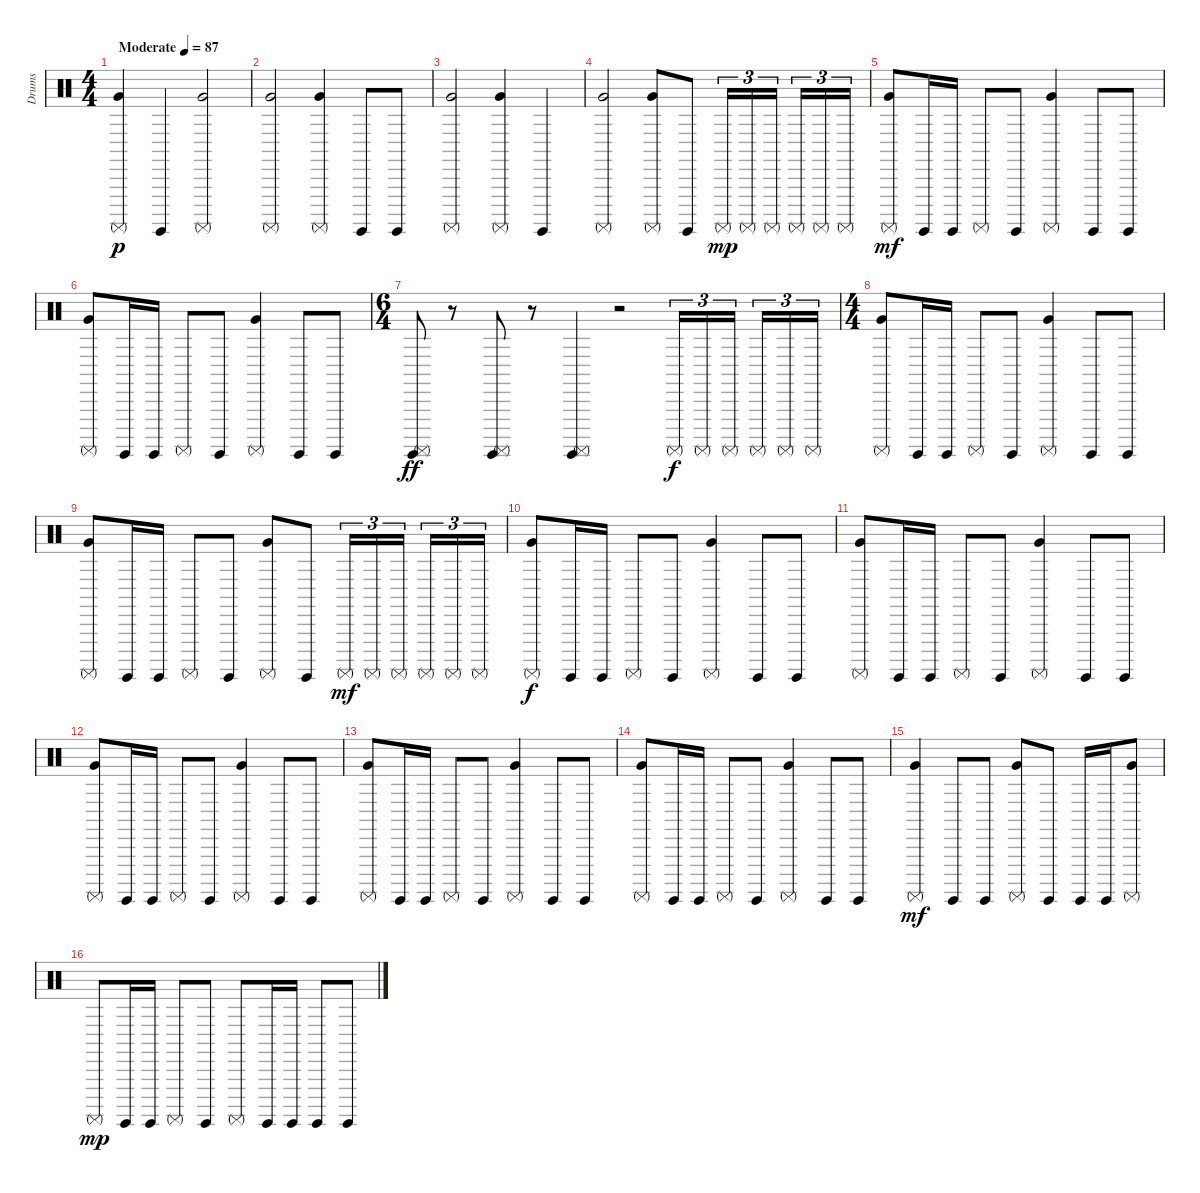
\track ("Drums" "Drums") {instrument percussion}
\staff {score}
\articulation defaults
\ts (4 4)
\tempo (87 "Moderate")
\clef neutral
\ks c
("Surdo (mute)" "Very Low Tom (hit)").4{dy p} "Surdo (hit)".4 ("Surdo (mute)" "Very Low Tom (hit)").2 |
("Very Low Tom (hit)" "Surdo (mute)").2 ("Very Low Tom (hit)" "Surdo (mute)").4 "Surdo (hit)".8 "Surdo (hit)".8 |
("Surdo (mute)" "Very Low Tom (hit)").2 ("Surdo (mute)" "Very Low Tom (hit)").4 "Surdo (hit)".4 |
("Surdo (mute)" "Very Low Tom (hit)").2 ("Surdo (mute)" "Very Low Tom (hit)").8 "Surdo (hit)".8 "Surdo (mute)".16{tu (3 2) dy mp volume 14} "Surdo (mute)".16{tu (3 2)} "Surdo (mute)".16{tu (3 2) beam splitsecondary} "Surdo (mute)".16{tu (3 2)} "Surdo (mute)".16{tu (3 2)} "Surdo (mute)".16{tu (3 2)} |
("Surdo (mute)" "Very Low Tom (hit)").8{dy mf} "Surdo (hit)".16 "Surdo (hit)".16 "Surdo (mute)".8 "Surdo (hit)".8 ("Surdo (mute)" "Very Low Tom (hit)").4 "Surdo (hit)".8{volume 16} "Surdo (hit)".8 |
("Surdo (mute)" "Very Low Tom (hit)").8 "Surdo (hit)".16 "Surdo (hit)".16 "Surdo (mute)".8 "Surdo (hit)".8 ("Surdo (mute)" "Very Low Tom (hit)").4 "Surdo (hit)".8 "Surdo (hit)".8 |
\ts (6 4)
("Surdo (mute)" "Surdo (hit)").8{dy ff} r.8 ("Surdo (mute)" "Surdo (hit)").8 r.8 ("Surdo (mute)" "Surdo (hit)").4 r.2{volume 6} "Surdo (mute)".16{tu (3 2) dy f volume 12} "Surdo (mute)".16{tu (3 2)} "Surdo (mute)".16{tu (3 2) beam splitsecondary} "Surdo (mute)".16{tu (3 2)} "Surdo (mute)".16{tu (3 2)} "Surdo (mute)".16{tu (3 2)} |
\ts (4 4)
("Surdo (mute)" "Very Low Tom (hit)").8{volume 16} "Surdo (hit)".16 "Surdo (hit)".16 "Surdo (mute)".8 "Surdo (hit)".8 ("Surdo (mute)" "Very Low Tom (hit)").4 "Surdo (hit)".8 "Surdo (hit)".8 |
("Surdo (mute)" "Very Low Tom (hit)").8 "Surdo (hit)".16 "Surdo (hit)".16 "Surdo (mute)".8 "Surdo (hit)".8 ("Surdo (mute)" "Very Low Tom (hit)").8 "Surdo (hit)".8 "Surdo (mute)".16{tu (3 2) dy mf} "Surdo (mute)".16{tu (3 2)} "Surdo (mute)".16{tu (3 2) beam splitsecondary} "Surdo (mute)".16{tu (3 2)} "Surdo (mute)".16{tu (3 2)} "Surdo (mute)".16{tu (3 2)} |
("Surdo (mute)" "Very Low Tom (hit)").8{dy f} "Surdo (hit)".16 "Surdo (hit)".16 "Surdo (mute)".8 "Surdo (hit)".8 ("Surdo (mute)" "Very Low Tom (hit)").4 "Surdo (hit)".8 "Surdo (hit)".8 |
("Surdo (mute)" "Very Low Tom (hit)").8 "Surdo (hit)".16 "Surdo (hit)".16 "Surdo (mute)".8 "Surdo (hit)".8 ("Surdo (mute)" "Very Low Tom (hit)").4 "Surdo (hit)".8 "Surdo (hit)".8 |
("Surdo (mute)" "Very Low Tom (hit)").8 "Surdo (hit)".16 "Surdo (hit)".16 "Surdo (mute)".8 "Surdo (hit)".8 ("Surdo (mute)" "Very Low Tom (hit)").4 "Surdo (hit)".8 "Surdo (hit)".8 |
("Surdo (mute)" "Very Low Tom (hit)").8 "Surdo (hit)".16 "Surdo (hit)".16 "Surdo (mute)".8 "Surdo (hit)".8 ("Surdo (mute)" "Very Low Tom (hit)").4 "Surdo (hit)".8 "Surdo (hit)".8 |
("Surdo (mute)" "Very Low Tom (hit)").8 "Surdo (hit)".16 "Surdo (hit)".16 "Surdo (mute)".8 "Surdo (hit)".8 ("Surdo (mute)" "Very Low Tom (hit)").4 "Surdo (hit)".8 "Surdo (hit)".8 |
("Surdo (mute)" "Very Low Tom (hit)").4{dy mf} "Surdo (hit)".8 "Surdo (hit)".8 ("Surdo (mute)" "Very Low Tom (hit)").8 "Surdo (hit)".8 "Surdo (hit)".16 "Surdo (hit)".16 ("Surdo (mute)" "Very Low Tom (hit)").8 |
"Surdo (mute)".8{dy mp} "Surdo (hit)".16 "Surdo (hit)".16 "Surdo (mute)".8 "Surdo (hit)".8 "Surdo (mute)".8 "Surdo (hit)".16 "Surdo (hit)".16 "Surdo (hit)".8 "Surdo (hit)".8
